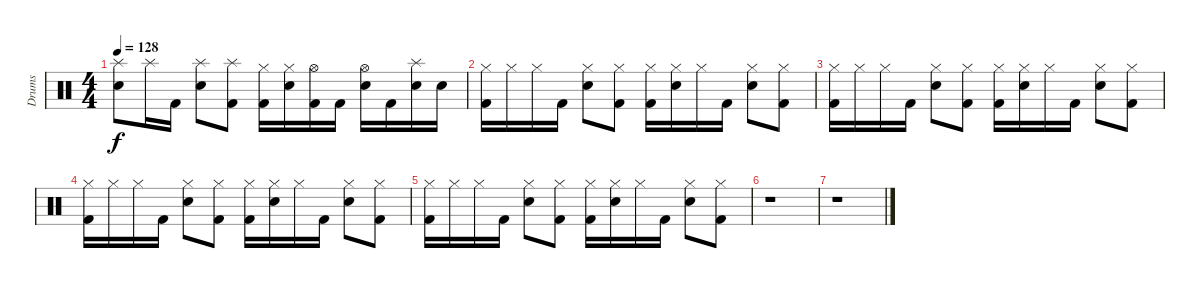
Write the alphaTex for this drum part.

\track ("Drums" "Drums") {instrument percussion}
\staff {score}
\articulation defaults
\ts (4 4)
\tempo 128
\clef neutral
\ks c
("Splash (hit)" "Snare (hit) 2").8{dy f} "Splash (hit)".16 "Kick (hit) 2".16 ("Splash (hit)" "Snare (hit) 2").8 ("Splash (hit)" "Kick (hit) 2").8 ("Hi-Hat (closed)" "Kick (hit) 2").16 ("Hi-Hat (closed)" "Snare (hit) 2").16 ("Hi-Hat (open)" "Kick (hit) 2").16 "Kick (hit) 2".16 ("Hi-Hat (open)" "Snare (hit) 2").16 "Kick (hit) 2".16 ("Splash (hit)" "Snare (hit) 2").16 "Snare (hit) 2".16 |
("Hi-Hat (closed)" "Kick (hit) 2").16 "Hi-Hat (closed)".16 "Hi-Hat (closed)".16 "Kick (hit) 2".16 ("Hi-Hat (closed)" "Snare (hit) 2").8 ("Hi-Hat (closed)" "Kick (hit) 2").8 ("Hi-Hat (closed)" "Kick (hit) 2").16 ("Hi-Hat (closed)" "Snare (hit) 2").16 "Hi-Hat (closed)".16 "Kick (hit) 2".16 ("Hi-Hat (closed)" "Snare (hit) 2").8 ("Hi-Hat (closed)" "Kick (hit) 2").8 |
("Hi-Hat (closed)" "Kick (hit) 2").16 "Hi-Hat (closed)".16 "Hi-Hat (closed)".16 "Kick (hit) 2".16 ("Hi-Hat (closed)" "Snare (hit) 2").8 ("Hi-Hat (closed)" "Kick (hit) 2").8 ("Hi-Hat (closed)" "Kick (hit) 2").16 ("Hi-Hat (closed)" "Snare (hit) 2").16 "Hi-Hat (closed)".16 "Kick (hit) 2".16 ("Hi-Hat (closed)" "Snare (hit) 2").8 ("Hi-Hat (closed)" "Kick (hit) 2").8 |
("Hi-Hat (closed)" "Kick (hit) 2").16 "Hi-Hat (closed)".16 "Hi-Hat (closed)".16 "Kick (hit) 2".16 ("Hi-Hat (closed)" "Snare (hit) 2").8 ("Hi-Hat (closed)" "Kick (hit) 2").8 ("Hi-Hat (closed)" "Kick (hit) 2").16 ("Hi-Hat (closed)" "Snare (hit) 2").16 "Hi-Hat (closed)".16 "Kick (hit) 2".16 ("Hi-Hat (closed)" "Snare (hit) 2").8 ("Hi-Hat (closed)" "Kick (hit) 2").8 |
("Hi-Hat (closed)" "Kick (hit) 2").16 "Hi-Hat (closed)".16 "Hi-Hat (closed)".16 "Kick (hit) 2".16 ("Hi-Hat (closed)" "Snare (hit) 2").8 ("Hi-Hat (closed)" "Kick (hit) 2").8 ("Hi-Hat (closed)" "Kick (hit) 2").16 ("Hi-Hat (closed)" "Snare (hit) 2").16 "Hi-Hat (closed)".16 "Kick (hit) 2".16 ("Hi-Hat (closed)" "Snare (hit) 2").8 ("Hi-Hat (closed)" "Kick (hit) 2").8 |
r.1 |
r.1
